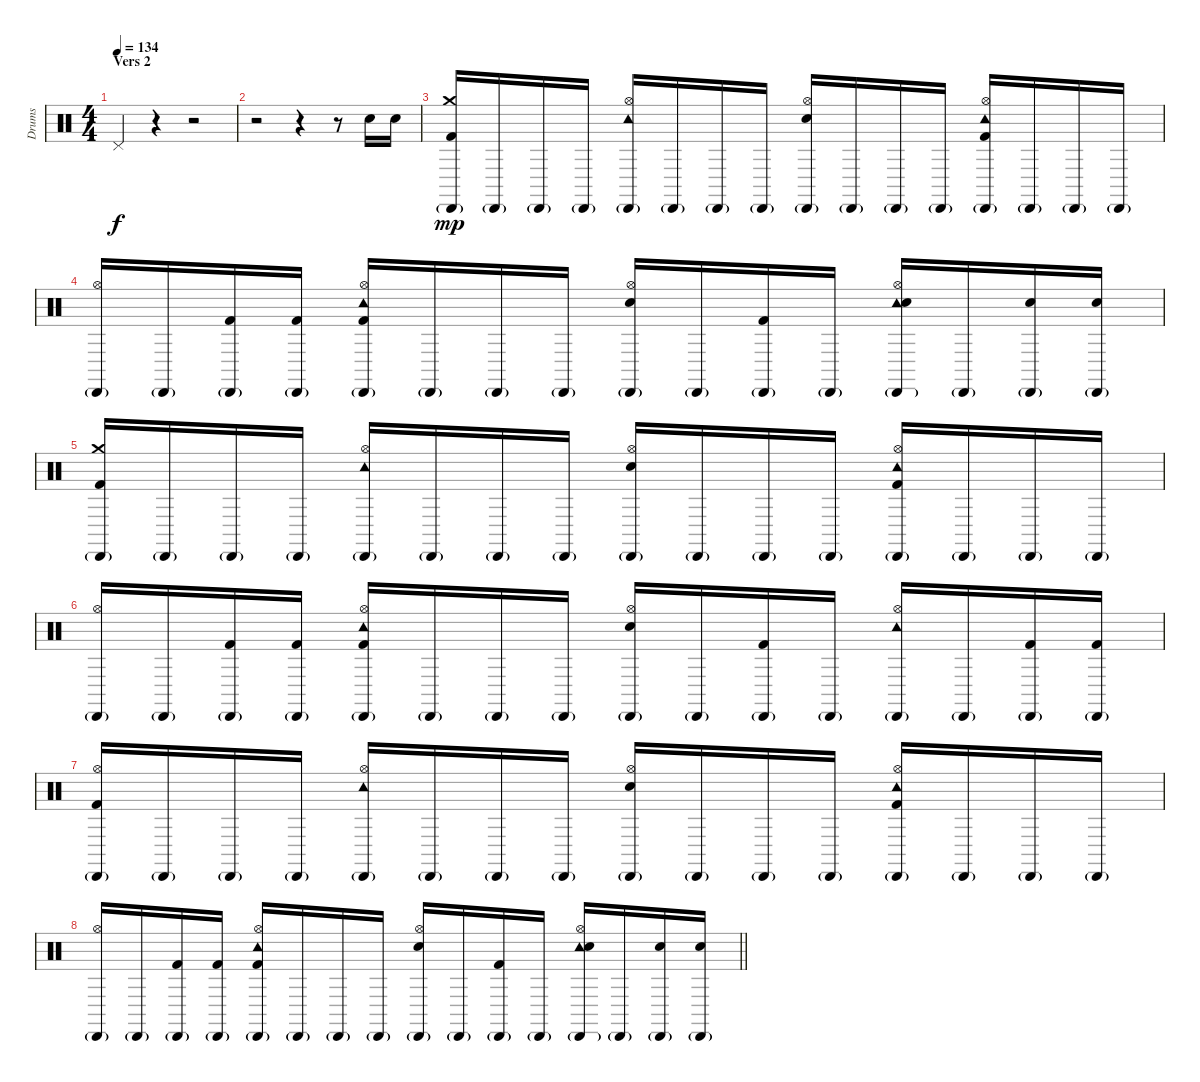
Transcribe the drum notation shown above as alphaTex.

\track ("Drums" "Drums") {instrument percussion}
\staff {score}
\articulation defaults
\ts (4 4)
\section ("" "Vers 2")
\tempo 134
\clef neutral
\ks c "Pedal Hi-Hat (hit)".4{dy f}
r.4 r.2 |
r.2 r.4 r.8 "Electric Snare (hit)".16 "Electric Snare (hit)".16 |
("Cabasa (hit)"{g} "Crash medium (hit)" "Kick (hit) 2").16{dy mp} "Cabasa (hit)"{g}.16 "Cabasa (hit)"{g}.16 "Cabasa (hit)"{g}.16 ("Tambourine (hit)" "Cabasa (hit)"{g} "Hi-Hat (open)").16 "Cabasa (hit)"{g}.16 "Cabasa (hit)"{g}.16 "Cabasa (hit)"{g}.16 ("Cabasa (hit)"{g} "Hi-Hat (open)" "Electric Snare (hit)").16 "Cabasa (hit)"{g}.16 "Cabasa (hit)"{g}.16 "Cabasa (hit)"{g}.16 ("Tambourine (hit)" "Cabasa (hit)"{g} "Hi-Hat (open)" "Kick (hit) 2").16 "Cabasa (hit)"{g}.16 "Cabasa (hit)"{g}.16 "Cabasa (hit)"{g}.16 |
("Cabasa (hit)"{g} "Hi-Hat (open)").16 "Cabasa (hit)"{g}.16 ("Cabasa (hit)"{g} "Kick (hit) 2").16 ("Cabasa (hit)"{g} "Kick (hit) 2").16 ("Tambourine (hit)" "Cabasa (hit)"{g} "Hi-Hat (open)" "Kick (hit) 2").16 "Cabasa (hit)"{g}.16 "Cabasa (hit)"{g}.16 "Cabasa (hit)"{g}.16 ("Cabasa (hit)"{g} "Hi-Hat (open)" "Electric Snare (hit)").16 "Cabasa (hit)"{g}.16 ("Cabasa (hit)"{g} "Kick (hit) 2").16 "Cabasa (hit)"{g}.16 ("Tambourine (hit)" "Cabasa (hit)"{g} "Hi-Hat (open)" "Electric Snare (hit)").16 "Cabasa (hit)"{g}.16 ("Cabasa (hit)"{g} "Electric Snare (hit)").16 ("Cabasa (hit)"{g} "Electric Snare (hit)").16 |
("Cabasa (hit)"{g} "Crash medium (hit)" "Kick (hit) 2").16 "Cabasa (hit)"{g}.16 "Cabasa (hit)"{g}.16 "Cabasa (hit)"{g}.16 ("Tambourine (hit)" "Cabasa (hit)"{g} "Hi-Hat (open)").16 "Cabasa (hit)"{g}.16 "Cabasa (hit)"{g}.16 "Cabasa (hit)"{g}.16 ("Cabasa (hit)"{g} "Hi-Hat (open)" "Electric Snare (hit)").16 "Cabasa (hit)"{g}.16 "Cabasa (hit)"{g}.16 "Cabasa (hit)"{g}.16 ("Tambourine (hit)" "Cabasa (hit)"{g} "Hi-Hat (open)" "Kick (hit) 2").16 "Cabasa (hit)"{g}.16 "Cabasa (hit)"{g}.16 "Cabasa (hit)"{g}.16 |
("Cabasa (hit)"{g} "Hi-Hat (open)").16 "Cabasa (hit)"{g}.16 ("Cabasa (hit)"{g} "Kick (hit) 2").16 ("Cabasa (hit)"{g} "Kick (hit) 2").16 ("Tambourine (hit)" "Cabasa (hit)"{g} "Hi-Hat (open)" "Kick (hit) 2").16 "Cabasa (hit)"{g}.16 "Cabasa (hit)"{g}.16 "Cabasa (hit)"{g}.16 ("Cabasa (hit)"{g} "Hi-Hat (open)" "Electric Snare (hit)").16 "Cabasa (hit)"{g}.16 ("Cabasa (hit)"{g} "Kick (hit) 2").16 "Cabasa (hit)"{g}.16 ("Tambourine (hit)" "Cabasa (hit)"{g} "Hi-Hat (open)").16 "Cabasa (hit)"{g}.16 ("Cabasa (hit)"{g} "Kick (hit) 2").16 ("Cabasa (hit)"{g} "Kick (hit) 2").16 |
("Cabasa (hit)"{g} "Hi-Hat (open)" "Kick (hit) 2").16 "Cabasa (hit)"{g}.16 "Cabasa (hit)"{g}.16 "Cabasa (hit)"{g}.16 ("Tambourine (hit)" "Cabasa (hit)"{g} "Hi-Hat (open)").16 "Cabasa (hit)"{g}.16 "Cabasa (hit)"{g}.16 "Cabasa (hit)"{g}.16 ("Cabasa (hit)"{g} "Hi-Hat (open)" "Electric Snare (hit)").16 "Cabasa (hit)"{g}.16 "Cabasa (hit)"{g}.16 "Cabasa (hit)"{g}.16 ("Tambourine (hit)" "Cabasa (hit)"{g} "Hi-Hat (open)" "Kick (hit) 2").16 "Cabasa (hit)"{g}.16 "Cabasa (hit)"{g}.16 "Cabasa (hit)"{g}.16 |
\barLineRight lightlight
("Cabasa (hit)"{g} "Hi-Hat (open)").16 "Cabasa (hit)"{g}.16 ("Cabasa (hit)"{g} "Kick (hit) 2").16 ("Cabasa (hit)"{g} "Kick (hit) 2").16 ("Tambourine (hit)" "Cabasa (hit)"{g} "Hi-Hat (open)" "Kick (hit) 2").16 "Cabasa (hit)"{g}.16 "Cabasa (hit)"{g}.16 "Cabasa (hit)"{g}.16 ("Cabasa (hit)"{g} "Hi-Hat (open)" "Electric Snare (hit)").16 "Cabasa (hit)"{g}.16 ("Cabasa (hit)"{g} "Kick (hit) 2").16 "Cabasa (hit)"{g}.16 ("Tambourine (hit)" "Cabasa (hit)"{g} "Hi-Hat (open)" "Electric Snare (hit)").16 "Cabasa (hit)"{g}.16 ("Cabasa (hit)"{g} "Electric Snare (hit)").16 ("Cabasa (hit)"{g} "Electric Snare (hit)").16
